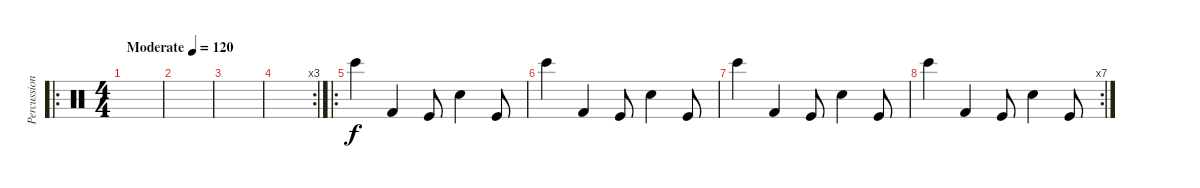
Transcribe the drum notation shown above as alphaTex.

\track ("Percussioni" "Percussion") {instrument percussion}
\staff {score}
\articulation defaults
\ro
\ts (4 4)
\tempo (120 "Moderate")
\clef neutral
\ks c
|
|
|
\rc 3
|
\ro "Bongo High (hit)".4 "Kick (hit) 2".4 "Kick (hit)".8 "Hand Clap (hit)".4 "Kick (hit)".8
|
"Bongo High (hit)".4 "Kick (hit) 2".4 "Kick (hit)".8 "Hand Clap (hit)".4 "Kick (hit)".8 |
"Bongo High (hit)".4 "Kick (hit) 2".4 "Kick (hit)".8 "Hand Clap (hit)".4 "Kick (hit)".8 |
\rc 7 "Bongo High (hit)".4 "Kick (hit) 2".4 "Kick (hit)".8 "Hand Clap (hit)".4 "Kick (hit)".8
